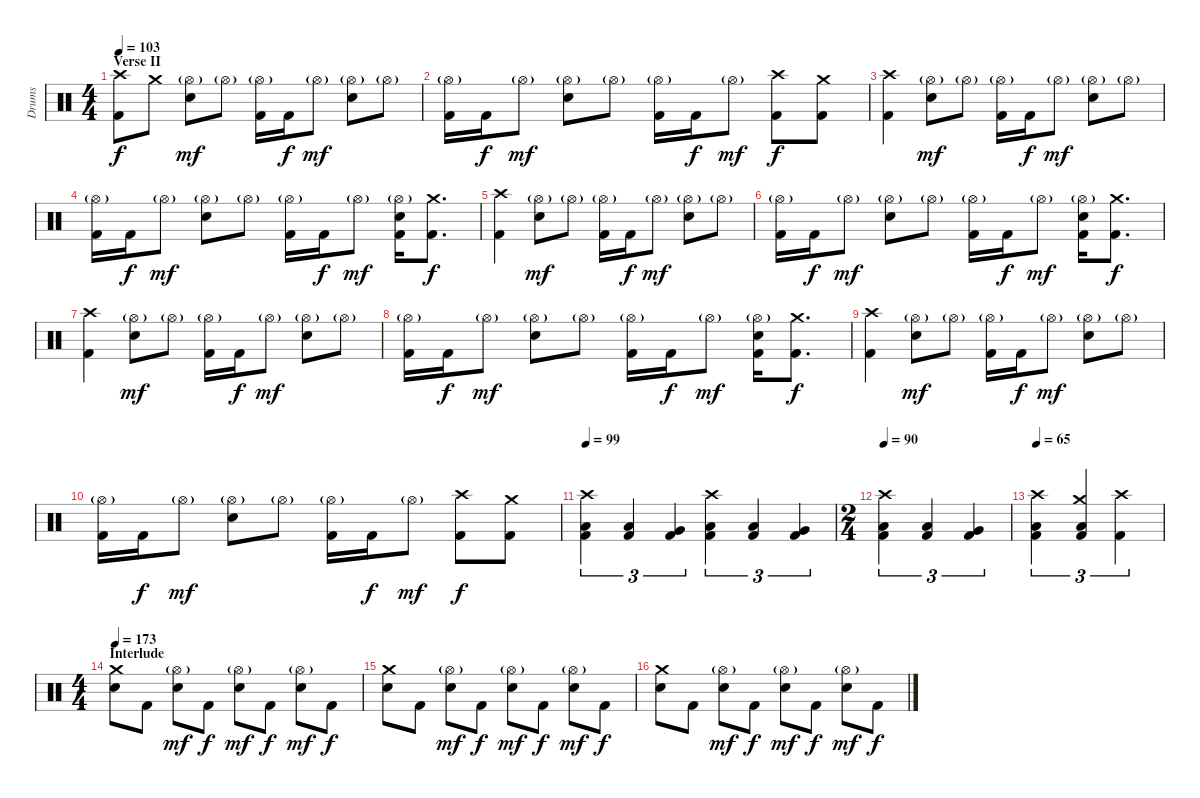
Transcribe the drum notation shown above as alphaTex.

\track ("Drums" "Drums") {instrument percussion}
\staff {score}
\articulation defaults
\ts (4 4)
\section ("" "Verse II")
\tempo 103
\clef neutral
\ks c
("Crash high (hit)" "Kick (hit) 2").8{dy f} "Crash medium (hit)".8 ("Hi-Hat (open)"{g} "Snare (hit) 2").8{dy mf} "Hi-Hat (open)"{g}.8 ("Hi-Hat (open)"{g} "Kick (hit) 2").16 "Kick (hit) 2".16{dy f} "Hi-Hat (open)"{g}.8{dy mf} ("Hi-Hat (open)"{g} "Snare (hit) 2").8 "Hi-Hat (open)"{g}.8 |
("Hi-Hat (open)"{g} "Kick (hit) 2").16 "Kick (hit) 2".16{dy f} "Hi-Hat (open)"{g}.8{dy mf} ("Hi-Hat (open)"{g} "Snare (hit) 2").8 "Hi-Hat (open)"{g}.8 ("Hi-Hat (open)"{g} "Kick (hit) 2").16 "Kick (hit) 2".16{dy f} "Hi-Hat (open)"{g}.8{dy mf} ("Crash high (hit)" "Kick (hit) 2").8{dy f} ("Crash medium (hit)" "Kick (hit) 2").8 |
("Crash high (hit)" "Kick (hit) 2").4 ("Hi-Hat (open)"{g} "Snare (hit) 2").8{dy mf} "Hi-Hat (open)"{g}.8 ("Hi-Hat (open)"{g} "Kick (hit) 2").16 "Kick (hit) 2".16{dy f} "Hi-Hat (open)"{g}.8{dy mf} ("Hi-Hat (open)"{g} "Snare (hit) 2").8 "Hi-Hat (open)"{g}.8 |
("Hi-Hat (open)"{g} "Kick (hit) 2").16 "Kick (hit) 2".16{dy f} "Hi-Hat (open)"{g}.8{dy mf} ("Hi-Hat (open)"{g} "Snare (hit) 2").8 "Hi-Hat (open)"{g}.8 ("Hi-Hat (open)"{g} "Kick (hit) 2").16 "Kick (hit) 2".16{dy f} "Hi-Hat (open)"{g}.8{dy mf} ("Hi-Hat (open)"{g} "Snare (hit) 2" "Kick (hit) 2").16 ("Crash medium (hit)" "Kick (hit) 2").8{d dy f} |
("Crash high (hit)" "Kick (hit) 2").4 ("Hi-Hat (open)"{g} "Snare (hit) 2").8{dy mf} "Hi-Hat (open)"{g}.8 ("Hi-Hat (open)"{g} "Kick (hit) 2").16 "Kick (hit) 2".16{dy f} "Hi-Hat (open)"{g}.8{dy mf} ("Hi-Hat (open)"{g} "Snare (hit) 2").8 "Hi-Hat (open)"{g}.8 |
("Hi-Hat (open)"{g} "Kick (hit) 2").16 "Kick (hit) 2".16{dy f} "Hi-Hat (open)"{g}.8{dy mf} ("Hi-Hat (open)"{g} "Snare (hit) 2").8 "Hi-Hat (open)"{g}.8 ("Hi-Hat (open)"{g} "Kick (hit) 2").16 "Kick (hit) 2".16{dy f} "Hi-Hat (open)"{g}.8{dy mf} ("Hi-Hat (open)"{g} "Snare (hit) 2" "Kick (hit) 2").16 ("Crash medium (hit)" "Kick (hit) 2").8{d dy f} |
("Crash high (hit)" "Kick (hit) 2").4 ("Hi-Hat (open)"{g} "Snare (hit) 2").8{dy mf} "Hi-Hat (open)"{g}.8 ("Hi-Hat (open)"{g} "Kick (hit) 2").16 "Kick (hit) 2".16{dy f} "Hi-Hat (open)"{g}.8{dy mf} ("Hi-Hat (open)"{g} "Snare (hit) 2").8 "Hi-Hat (open)"{g}.8 |
("Hi-Hat (open)"{g} "Kick (hit) 2").16 "Kick (hit) 2".16{dy f} "Hi-Hat (open)"{g}.8{dy mf} ("Hi-Hat (open)"{g} "Snare (hit) 2").8 "Hi-Hat (open)"{g}.8 ("Hi-Hat (open)"{g} "Kick (hit) 2").16 "Kick (hit) 2".16{dy f} "Hi-Hat (open)"{g}.8{dy mf} ("Hi-Hat (open)"{g} "Snare (hit) 2" "Kick (hit) 2").16 ("Crash medium (hit)" "Kick (hit) 2").8{d dy f} |
("Crash high (hit)" "Kick (hit) 2").4 ("Hi-Hat (open)"{g} "Snare (hit) 2").8{dy mf} "Hi-Hat (open)"{g}.8 ("Hi-Hat (open)"{g} "Kick (hit) 2").16 "Kick (hit) 2".16{dy f} "Hi-Hat (open)"{g}.8{dy mf} ("Hi-Hat (open)"{g} "Snare (hit) 2").8 "Hi-Hat (open)"{g}.8 |
("Hi-Hat (open)"{g} "Kick (hit) 2").16 "Kick (hit) 2".16{dy f} "Hi-Hat (open)"{g}.8{dy mf} ("Hi-Hat (open)"{g} "Snare (hit) 2").8 "Hi-Hat (open)"{g}.8 ("Hi-Hat (open)"{g} "Kick (hit) 2").16 "Kick (hit) 2".16{dy f} "Hi-Hat (open)"{g}.8{dy mf} ("Crash high (hit)" "Kick (hit) 2").8{dy f} ("Crash medium (hit)" "Kick (hit) 2").8 |
\tempo 99
("Crash high (hit)" "Low Tom (hit)" "Kick (hit) 2").4{tu (3 2)} ("Low Floor Tom (hit)" "Kick (hit) 2").4{tu (3 2)} ("Very Low Tom (hit)" "Kick (hit) 2").4{tu (3 2)} ("Crash high (hit)" "Low Tom (hit)" "Kick (hit) 2").4{tu (3 2)} ("Low Floor Tom (hit)" "Kick (hit) 2").4{tu (3 2)} ("Very Low Tom (hit)" "Kick (hit) 2").4{tu (3 2)} |
\ts (2 4)
\tempo 90
("Crash high (hit)" "Low Tom (hit)" "Kick (hit) 2").4{tu (3 2)} ("Low Floor Tom (hit)" "Kick (hit) 2").4{tu (3 2)} ("Very Low Tom (hit)" "Kick (hit) 2").4{tu (3 2)} |
\tempo 65
("Crash high (hit)" "Low Tom (hit)" "Kick (hit) 2").4{tu (3 2)} ("Crash medium (hit)" "Low Floor Tom (hit)" "Kick (hit) 2").4{tu (3 2)} ("Crash high (hit)" "Kick (hit) 2").4{tu (3 2)} |
\ts (4 4)
\section ("" "Interlude")
\tempo 173
("Crash medium (hit)" "Snare (hit) 2").8 "Kick (hit) 2".8 ("Hi-Hat (open)"{g} "Snare (hit) 2").8{dy mf} "Kick (hit) 2".8{dy f} ("Hi-Hat (open)"{g} "Snare (hit) 2").8{dy mf} "Kick (hit) 2".8{dy f} ("Hi-Hat (open)"{g} "Snare (hit) 2").8{dy mf} "Kick (hit) 2".8{dy f} |
("Crash medium (hit)" "Snare (hit) 2").8 "Kick (hit) 2".8 ("Hi-Hat (open)"{g} "Snare (hit) 2").8{dy mf} "Kick (hit) 2".8{dy f} ("Hi-Hat (open)"{g} "Snare (hit) 2").8{dy mf} "Kick (hit) 2".8{dy f} ("Hi-Hat (open)"{g} "Snare (hit) 2").8{dy mf} "Kick (hit) 2".8{dy f} |
("Crash medium (hit)" "Snare (hit) 2").8 "Kick (hit) 2".8 ("Hi-Hat (open)"{g} "Snare (hit) 2").8{dy mf} "Kick (hit) 2".8{dy f} ("Hi-Hat (open)"{g} "Snare (hit) 2").8{dy mf} "Kick (hit) 2".8{dy f} ("Hi-Hat (open)"{g} "Snare (hit) 2").8{dy mf} "Kick (hit) 2".8{dy f}
